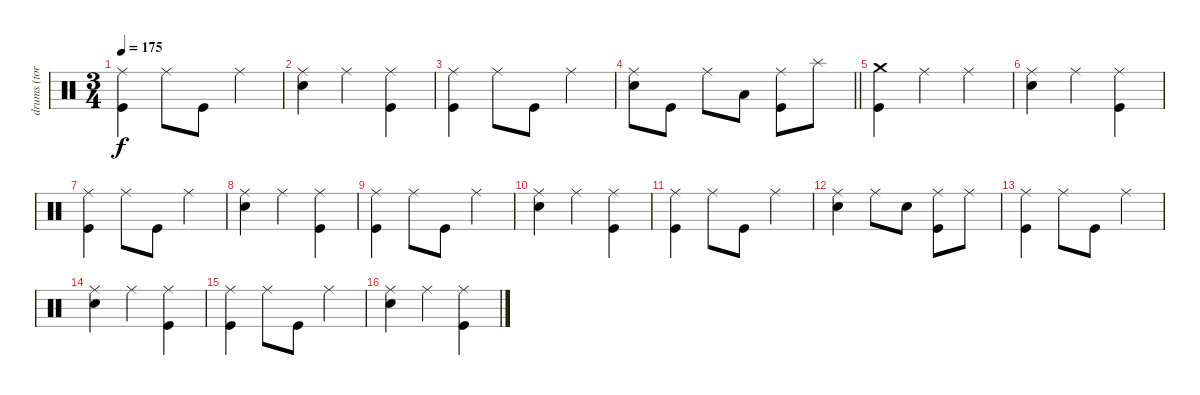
\track ("drums (tora)" "drums (tor") {instrument percussion}
\staff {score}
\articulation defaults
\ts (3 4)
\tempo 175
\clef neutral
\ks c
("Ride (middle)" "Kick (hit)").4{dy f} "Ride (middle)".8 "Kick (hit)".8 "Ride (middle)".4 |
("Ride (middle)" "Snare (hit) 2").4 "Ride (middle)".4 ("Ride (middle)" "Kick (hit)").4 |
("Ride (middle)" "Kick (hit)").4 "Ride (middle)".8 "Kick (hit)".8 "Ride (middle)".4 |
\barLineRight lightlight
("Ride (middle)" "Snare (hit) 2").8 "Kick (hit)".8 "Ride (middle)".8 "Low Tom (hit)".8 ("Ride (middle)" "Kick (hit)").8 "Splash (hit)".8 |
("Crash medium (hit)" "Kick (hit)").4 "Ride (middle)".4 "Ride (middle)".4 |
("Ride (middle)" "Snare (hit) 2").4 "Ride (middle)".4 ("Ride (middle)" "Kick (hit)").4 |
("Ride (middle)" "Kick (hit)").4 "Ride (middle)".8 "Kick (hit)".8 "Ride (middle)".4 |
("Ride (middle)" "Snare (hit) 2").4 "Ride (middle)".4 ("Ride (middle)" "Kick (hit)").4 |
("Ride (middle)" "Kick (hit)").4 "Ride (middle)".8 "Kick (hit)".8 "Ride (middle)".4 |
("Ride (middle)" "Snare (hit) 2").4 "Ride (middle)".4 ("Ride (middle)" "Kick (hit)").4 |
("Ride (middle)" "Kick (hit)").4 "Ride (middle)".8 "Kick (hit)".8 "Ride (middle)".4 |
("Ride (middle)" "Snare (hit) 2").4 "Ride (middle)".8 "Snare (hit) 2".8 ("Ride (middle)" "Kick (hit)").8 "Ride (middle)".8 |
("Ride (middle)" "Kick (hit)").4 "Ride (middle)".8 "Kick (hit)".8 "Ride (middle)".4 |
("Ride (middle)" "Snare (hit) 2").4 "Ride (middle)".4 ("Ride (middle)" "Kick (hit)").4 |
("Ride (middle)" "Kick (hit)").4 "Ride (middle)".8 "Kick (hit)".8 "Ride (middle)".4 |
("Ride (middle)" "Snare (hit) 2").4 "Ride (middle)".4 ("Ride (middle)" "Kick (hit)").4
